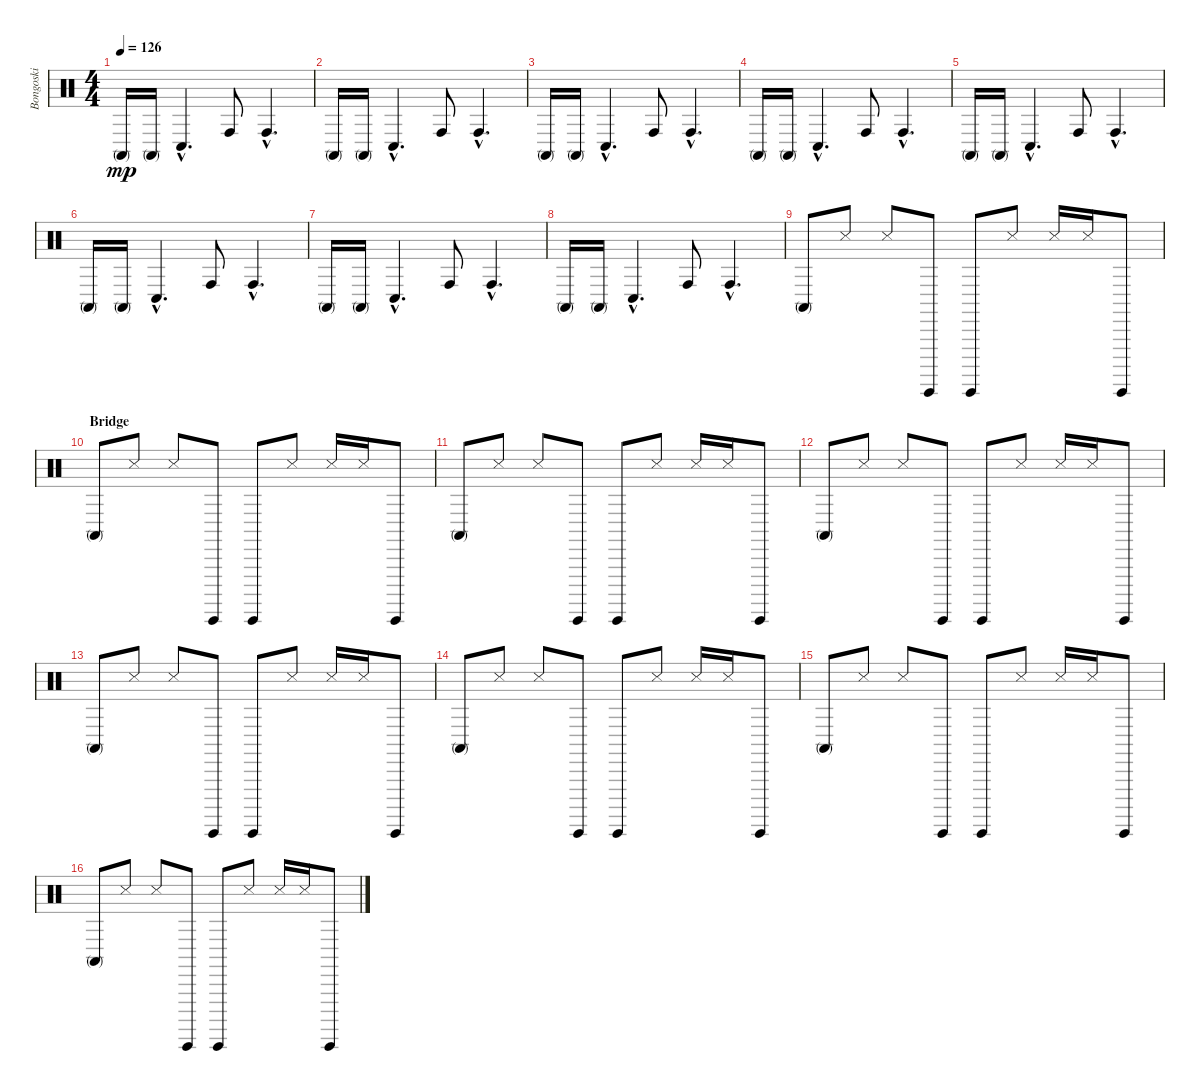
\track ("Bongoski" "Bongoski") {instrument percussion}
\staff {score}
\articulation defaults
\ts (4 4)
\tempo 126
\clef neutral
\ks c "Conga high (mute)".16{dy mp} "Conga high (mute)".16 "Conga low (hit)"{hac}.4{d} "Conga high (hit)".8 "Conga high (hit)"{hac}.4{d}
|
"Conga high (mute)".16 "Conga high (mute)".16 "Conga low (hit)"{hac}.4{d} "Conga high (hit)".8 "Conga high (hit)"{hac}.4{d} |
"Conga high (mute)".16 "Conga high (mute)".16 "Conga low (hit)"{hac}.4{d} "Conga high (hit)".8 "Conga high (hit)"{hac}.4{d} |
"Conga high (mute)".16 "Conga high (mute)".16 "Conga low (hit)"{hac}.4{d} "Conga high (hit)".8 "Conga high (hit)"{hac}.4{d} |
"Conga high (mute)".16 "Conga high (mute)".16 "Conga low (hit)"{hac}.4{d} "Conga high (hit)".8 "Conga high (hit)"{hac}.4{d} |
"Conga high (mute)".16 "Conga high (mute)".16 "Conga low (hit)"{hac}.4{d} "Conga high (hit)".8 "Conga high (hit)"{hac}.4{d} |
"Conga high (mute)".16 "Conga high (mute)".16 "Conga low (hit)"{hac}.4{d} "Conga high (hit)".8 "Conga high (hit)"{hac}.4{d} |
"Conga high (mute)".16 "Conga high (mute)".16 "Conga low (hit)"{hac}.4{d} "Conga high (hit)".8 "Conga high (hit)"{hac}.4{d} |
"Conga high (mute)".8 "Snare (side stick) 3".8 "Snare (side stick) 3".8 "Guiro (hit)".8 "Guiro (hit)".8 "Snare (side stick) 3".8 "Snare (side stick) 3".16 "Snare (side stick) 3".16 "Guiro (hit)".8 |
\section ("" "Bridge")
"Conga high (mute)".8 "Snare (side stick) 3".8 "Snare (side stick) 3".8 "Guiro (hit)".8 "Guiro (hit)".8 "Snare (side stick) 3".8 "Snare (side stick) 3".16 "Snare (side stick) 3".16 "Guiro (hit)".8 |
"Conga high (mute)".8 "Snare (side stick) 3".8 "Snare (side stick) 3".8 "Guiro (hit)".8 "Guiro (hit)".8 "Snare (side stick) 3".8 "Snare (side stick) 3".16 "Snare (side stick) 3".16 "Guiro (hit)".8 |
"Conga high (mute)".8 "Snare (side stick) 3".8 "Snare (side stick) 3".8 "Guiro (hit)".8 "Guiro (hit)".8 "Snare (side stick) 3".8 "Snare (side stick) 3".16 "Snare (side stick) 3".16 "Guiro (hit)".8 |
"Conga high (mute)".8 "Snare (side stick) 3".8 "Snare (side stick) 3".8 "Guiro (hit)".8 "Guiro (hit)".8 "Snare (side stick) 3".8 "Snare (side stick) 3".16 "Snare (side stick) 3".16 "Guiro (hit)".8 |
"Conga high (mute)".8 "Snare (side stick) 3".8 "Snare (side stick) 3".8 "Guiro (hit)".8 "Guiro (hit)".8 "Snare (side stick) 3".8 "Snare (side stick) 3".16 "Snare (side stick) 3".16 "Guiro (hit)".8 |
"Conga high (mute)".8 "Snare (side stick) 3".8 "Snare (side stick) 3".8 "Guiro (hit)".8 "Guiro (hit)".8 "Snare (side stick) 3".8 "Snare (side stick) 3".16 "Snare (side stick) 3".16 "Guiro (hit)".8 |
"Conga high (mute)".8 "Snare (side stick) 3".8 "Snare (side stick) 3".8 "Guiro (hit)".8 "Guiro (hit)".8 "Snare (side stick) 3".8 "Snare (side stick) 3".16 "Snare (side stick) 3".16 "Guiro (hit)".8
